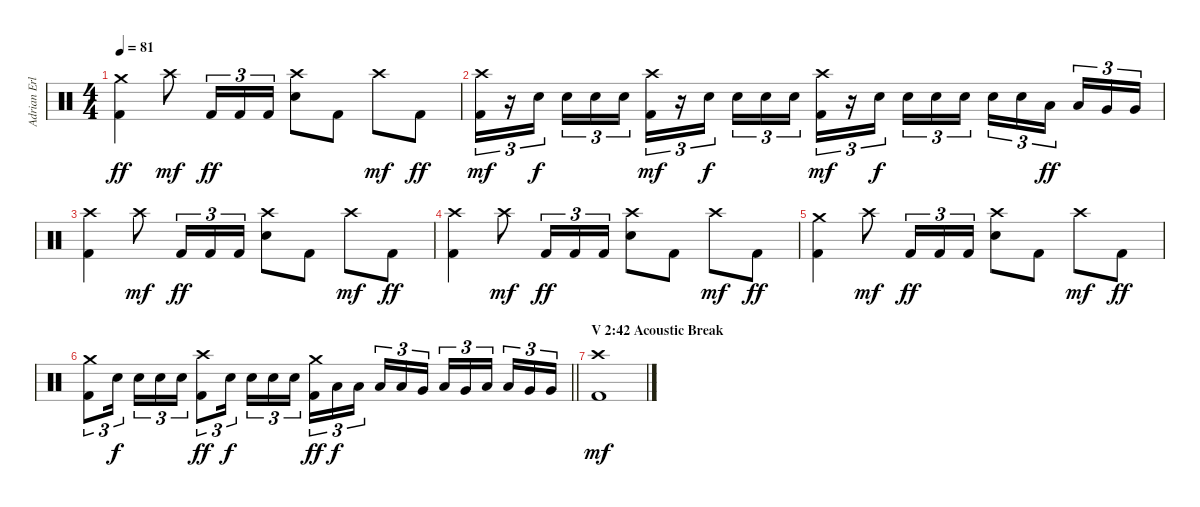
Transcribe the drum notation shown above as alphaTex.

\track ("Adrian Erlandsson (drums)" "Adrian Erl") {instrument percussion}
\staff {score}
\articulation defaults
\ts (4 4)
\tempo 81
\clef neutral
\ks c
("Crash medium (hit)" "Kick (hit) 2").4{dy ff} "Crash high (hit)".8{dy mf} "Kick (hit) 2".16{tu (3 2) dy ff} "Kick (hit) 2".16{tu (3 2)} "Kick (hit) 2".16{tu (3 2)} ("Crash high (hit)" "Electric Snare (hit)").8 "Kick (hit) 2".8 "Crash high (hit)".8{dy mf} "Kick (hit) 2".8{dy ff} |
("Crash high (hit)" "Kick (hit) 2").16{tu (3 2) dy mf} r.16{tu (3 2)} "Electric Snare (hit)".16{tu (3 2) dy f beam splitsecondary} "Electric Snare (hit)".16{tu (3 2)} "Electric Snare (hit)".16{tu (3 2)} "Electric Snare (hit)".16{tu (3 2)} ("Crash high (hit)" "Kick (hit) 2").16{tu (3 2) dy mf} r.16{tu (3 2)} "Electric Snare (hit)".16{tu (3 2) dy f beam splitsecondary} "Electric Snare (hit)".16{tu (3 2)} "Electric Snare (hit)".16{tu (3 2)} "Electric Snare (hit)".16{tu (3 2)} ("Crash high (hit)" "Kick (hit) 2").16{tu (3 2) dy mf} r.16{tu (3 2)} "Electric Snare (hit)".16{tu (3 2) dy f beam splitsecondary} "Electric Snare (hit)".16{tu (3 2)} "Electric Snare (hit)".16{tu (3 2)} "Electric Snare (hit)".16{tu (3 2)} "Electric Snare (hit)".16{tu (3 2)} "Electric Snare (hit)".16{tu (3 2)} "Low Tom (hit)".16{tu (3 2) dy ff beam splitsecondary} "Low Tom (hit)".16{tu (3 2)} "Very Low Tom (hit)".16{tu (3 2)} "Very Low Tom (hit)".16{tu (3 2)} |
("Crash high (hit)" "Kick (hit) 2").4 "Crash high (hit)".8{dy mf} "Kick (hit) 2".16{tu (3 2) dy ff} "Kick (hit) 2".16{tu (3 2)} "Kick (hit) 2".16{tu (3 2)} ("Crash high (hit)" "Electric Snare (hit)").8 "Kick (hit) 2".8 "Crash high (hit)".8{dy mf} "Kick (hit) 2".8{dy ff} |
("Crash high (hit)" "Kick (hit) 2").4 "Crash high (hit)".8{dy mf} "Kick (hit) 2".16{tu (3 2) dy ff} "Kick (hit) 2".16{tu (3 2)} "Kick (hit) 2".16{tu (3 2)} ("Crash high (hit)" "Electric Snare (hit)").8 "Kick (hit) 2".8 "Crash high (hit)".8{dy mf} "Kick (hit) 2".8{dy ff} |
("Crash medium (hit)" "Kick (hit) 2").4 "Crash high (hit)".8{dy mf} "Kick (hit) 2".16{tu (3 2) dy ff} "Kick (hit) 2".16{tu (3 2)} "Kick (hit) 2".16{tu (3 2)} ("Crash high (hit)" "Electric Snare (hit)").8 "Kick (hit) 2".8 "Crash high (hit)".8{dy mf} "Kick (hit) 2".8{dy ff} |
\barLineRight lightlight
("Crash medium (hit)" "Kick (hit) 2").8{tu (3 2)} "Electric Snare (hit)".16{tu (3 2) dy f beam splitsecondary} "Electric Snare (hit)".16{tu (3 2)} "Electric Snare (hit)".16{tu (3 2)} "Electric Snare (hit)".16{tu (3 2)} ("Crash high (hit)" "Kick (hit) 2").8{tu (3 2) dy ff} "Electric Snare (hit)".16{tu (3 2) dy f beam splitsecondary} "Electric Snare (hit)".16{tu (3 2)} "Electric Snare (hit)".16{tu (3 2)} "Electric Snare (hit)".16{tu (3 2)} ("Crash medium (hit)" "Kick (hit) 2").16{tu (3 2) dy ff} "Low Tom (hit)".16{tu (3 2) dy f} "Low Tom (hit)".16{tu (3 2) beam splitsecondary} "Low Tom (hit)".16{tu (3 2)} "Low Tom (hit)".16{tu (3 2)} "Very Low Tom (hit)".16{tu (3 2)} "Low Tom (hit)".16{tu (3 2)} "Very Low Tom (hit)".16{tu (3 2)} "Low Tom (hit)".16{tu (3 2) beam splitsecondary} "Low Tom (hit)".16{tu (3 2)} "Very Low Tom (hit)".16{tu (3 2)} "Very Low Tom (hit)".16{tu (3 2)} |
\section ("" "V 2:42 Acoustic Break")
("Crash high (hit)" "Kick (hit) 2").1{dy mf}
